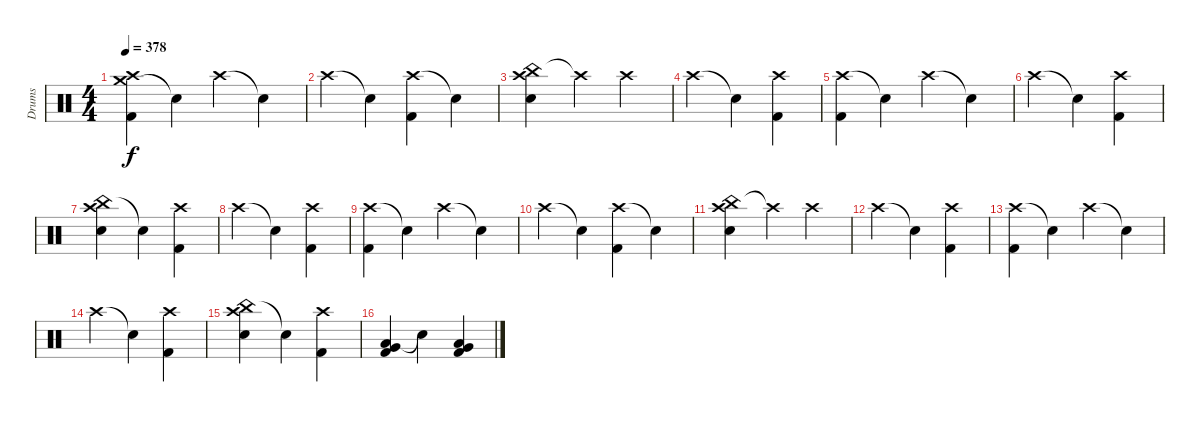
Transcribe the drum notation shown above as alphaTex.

\track ("Drums" "Drums") {instrument percussion}
\staff {score}
\articulation defaults
\ts (4 4)
\tempo 378
\clef neutral
\ks c
("Crash medium (hit)" "Crash high (hit)" "Kick (hit) 2").4{dy f} "Snare (hit)"{t}.4 "Crash high (hit)".4 "Snare (hit)"{t}.4 |
"Crash high (hit)".4 "Snare (hit)"{t}.4 ("Crash high (hit)" "Kick (hit) 2").4 "Snare (hit)"{t}.4 |
("China (hit)" "Crash high (hit)" "Electric Snare (hit)").4 "Crash high (hit)"{t}.4 "Crash high (hit)".4 |
"Crash high (hit)".4 "Snare (hit)"{t}.4 ("Crash high (hit)" "Kick (hit) 2").4 |
("Crash high (hit)" "Kick (hit) 2").4 "Snare (hit)"{t}.4 "Crash high (hit)".4 "Snare (hit)"{t}.4 |
"Crash high (hit)".4 "Snare (hit)"{t}.4 ("Crash high (hit)" "Kick (hit) 2").4 |
("China (hit)" "Crash high (hit)" "Electric Snare (hit)").4 "Snare (hit)"{t}.4 ("Crash high (hit)" "Kick (hit) 2").4 |
"Crash high (hit)".4 "Snare (hit)"{t}.4 ("Crash high (hit)" "Kick (hit) 2").4 |
("Crash high (hit)" "Kick (hit) 2").4 "Snare (hit)"{t}.4 "Crash high (hit)".4 "Snare (hit)"{t}.4 |
"Crash high (hit)".4 "Snare (hit)"{t}.4 ("Crash high (hit)" "Kick (hit) 2").4 "Snare (hit)"{t}.4 |
("China (hit)" "Crash high (hit)" "Electric Snare (hit)").4 "Crash high (hit)"{t}.4 "Crash high (hit)".4 |
"Crash high (hit)".4 "Snare (hit)"{t}.4 ("Crash high (hit)" "Kick (hit) 2").4 |
("Crash high (hit)" "Kick (hit) 2").4 "Snare (hit)"{t}.4 "Crash high (hit)".4 "Snare (hit)"{t}.4 |
"Crash high (hit)".4 "Snare (hit)"{t}.4 ("Crash high (hit)" "Kick (hit) 2").4 |
("China (hit)" "Crash high (hit)" "Electric Snare (hit)").4 "Snare (hit)"{t}.4 ("Crash high (hit)" "Kick (hit) 2").4 |
("Low Floor Tom (hit)" "Very Low Tom (hit)" "Kick (hit) 2").4 "Snare (hit)"{t}.4 ("Low Floor Tom (hit)" "Very Low Tom (hit)" "Kick (hit) 2").4
